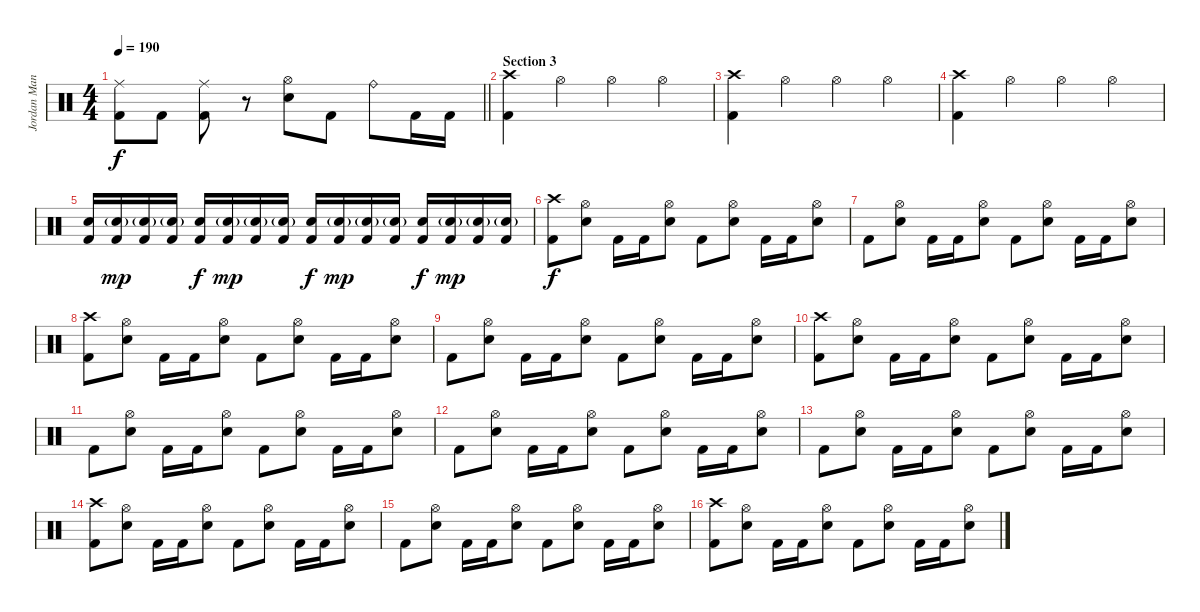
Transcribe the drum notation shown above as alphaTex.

\track ("Jordan Mancino" "Jordan Man") {instrument percussion}
\staff {score}
\articulation defaults
\ts (4 4)
\tempo 190
\clef neutral
\barLineRight lightlight
\ks c
("Ride (middle)" "Kick (hit) 2").8{dy f} "Kick (hit) 2".8 ("Ride (middle)" "Kick (hit) 2").8 r.8 ("Hi-Hat (open)" "Electric Snare (hit)").8 "Kick (hit) 2".8 "Ride (bell)".8 "Kick (hit) 2".16 "Kick (hit) 2".16 |
\section ("" "Section 3")
("Crash high (hit)" "Kick (hit) 2").4 "Hi-Hat (open)".4 "Hi-Hat (open)".4 "Hi-Hat (open)".4 |
("Crash high (hit)" "Kick (hit) 2").4 "Hi-Hat (open)".4 "Hi-Hat (open)".4 "Hi-Hat (open)".4 |
("Crash high (hit)" "Kick (hit) 2").4 "Hi-Hat (open)".4 "Hi-Hat (open)".4 "Hi-Hat (open)".4 |
("Electric Snare (hit)" "Kick (hit) 2").16 ("Electric Snare (hit)"{g} "Kick (hit) 2").16{dy mp} ("Electric Snare (hit)"{g} "Kick (hit) 2").16 ("Electric Snare (hit)"{g} "Kick (hit) 2").16 ("Electric Snare (hit)" "Kick (hit) 2").16{dy f} ("Electric Snare (hit)"{g} "Kick (hit) 2").16{dy mp} ("Electric Snare (hit)"{g} "Kick (hit) 2").16 ("Electric Snare (hit)"{g} "Kick (hit) 2").16 ("Electric Snare (hit)" "Kick (hit) 2").16{dy f} ("Electric Snare (hit)"{g} "Kick (hit) 2").16{dy mp} ("Electric Snare (hit)"{g} "Kick (hit) 2").16 ("Electric Snare (hit)"{g} "Kick (hit) 2").16 ("Electric Snare (hit)" "Kick (hit) 2").16{dy f} ("Electric Snare (hit)"{g} "Kick (hit) 2").16{dy mp} ("Electric Snare (hit)"{g} "Kick (hit) 2").16 ("Electric Snare (hit)"{g} "Kick (hit) 2").16 |
("Crash high (hit)" "Kick (hit) 2").8{dy f} ("Hi-Hat (open)" "Electric Snare (hit)").8 "Kick (hit) 2".16 "Kick (hit) 2".16 ("Hi-Hat (open)" "Electric Snare (hit)").8 "Kick (hit) 2".8 ("Hi-Hat (open)" "Electric Snare (hit)").8 "Kick (hit) 2".16 "Kick (hit) 2".16 ("Hi-Hat (open)" "Electric Snare (hit)").8 |
"Kick (hit) 2".8 ("Hi-Hat (open)" "Electric Snare (hit)").8 "Kick (hit) 2".16 "Kick (hit) 2".16 ("Hi-Hat (open)" "Electric Snare (hit)").8 "Kick (hit) 2".8 ("Hi-Hat (open)" "Electric Snare (hit)").8 "Kick (hit) 2".16 "Kick (hit) 2".16 ("Hi-Hat (open)" "Electric Snare (hit)").8 |
("Crash high (hit)" "Kick (hit) 2").8 ("Hi-Hat (open)" "Electric Snare (hit)").8 "Kick (hit) 2".16 "Kick (hit) 2".16 ("Hi-Hat (open)" "Electric Snare (hit)").8 "Kick (hit) 2".8 ("Hi-Hat (open)" "Electric Snare (hit)").8 "Kick (hit) 2".16 "Kick (hit) 2".16 ("Hi-Hat (open)" "Electric Snare (hit)").8 |
"Kick (hit) 2".8 ("Hi-Hat (open)" "Electric Snare (hit)").8 "Kick (hit) 2".16 "Kick (hit) 2".16 ("Hi-Hat (open)" "Electric Snare (hit)").8 "Kick (hit) 2".8 ("Hi-Hat (open)" "Electric Snare (hit)").8 "Kick (hit) 2".16 "Kick (hit) 2".16 ("Hi-Hat (open)" "Electric Snare (hit)").8 |
("Crash high (hit)" "Kick (hit) 2").8 ("Hi-Hat (open)" "Electric Snare (hit)").8 "Kick (hit) 2".16 "Kick (hit) 2".16 ("Hi-Hat (open)" "Electric Snare (hit)").8 "Kick (hit) 2".8 ("Hi-Hat (open)" "Electric Snare (hit)").8 "Kick (hit) 2".16 "Kick (hit) 2".16 ("Hi-Hat (open)" "Electric Snare (hit)").8 |
"Kick (hit) 2".8 ("Hi-Hat (open)" "Electric Snare (hit)").8 "Kick (hit) 2".16 "Kick (hit) 2".16 ("Hi-Hat (open)" "Electric Snare (hit)").8 "Kick (hit) 2".8 ("Hi-Hat (open)" "Electric Snare (hit)").8 "Kick (hit) 2".16 "Kick (hit) 2".16 ("Hi-Hat (open)" "Electric Snare (hit)").8 |
"Kick (hit) 2".8 ("Hi-Hat (open)" "Electric Snare (hit)").8 "Kick (hit) 2".16 "Kick (hit) 2".16 ("Hi-Hat (open)" "Electric Snare (hit)").8 "Kick (hit) 2".8 ("Hi-Hat (open)" "Electric Snare (hit)").8 "Kick (hit) 2".16 "Kick (hit) 2".16 ("Hi-Hat (open)" "Electric Snare (hit)").8 |
"Kick (hit) 2".8 ("Hi-Hat (open)" "Electric Snare (hit)").8 "Kick (hit) 2".16 "Kick (hit) 2".16 ("Hi-Hat (open)" "Electric Snare (hit)").8 "Kick (hit) 2".8 ("Hi-Hat (open)" "Electric Snare (hit)").8 "Kick (hit) 2".16 "Kick (hit) 2".16 ("Hi-Hat (open)" "Electric Snare (hit)").8 |
("Crash high (hit)" "Kick (hit) 2").8 ("Hi-Hat (open)" "Electric Snare (hit)").8 "Kick (hit) 2".16 "Kick (hit) 2".16 ("Hi-Hat (open)" "Electric Snare (hit)").8 "Kick (hit) 2".8 ("Hi-Hat (open)" "Electric Snare (hit)").8 "Kick (hit) 2".16 "Kick (hit) 2".16 ("Hi-Hat (open)" "Electric Snare (hit)").8 |
"Kick (hit) 2".8 ("Hi-Hat (open)" "Electric Snare (hit)").8 "Kick (hit) 2".16 "Kick (hit) 2".16 ("Hi-Hat (open)" "Electric Snare (hit)").8 "Kick (hit) 2".8 ("Hi-Hat (open)" "Electric Snare (hit)").8 "Kick (hit) 2".16 "Kick (hit) 2".16 ("Hi-Hat (open)" "Electric Snare (hit)").8 |
("Crash high (hit)" "Kick (hit) 2").8 ("Hi-Hat (open)" "Electric Snare (hit)").8 "Kick (hit) 2".16 "Kick (hit) 2".16 ("Hi-Hat (open)" "Electric Snare (hit)").8 "Kick (hit) 2".8 ("Hi-Hat (open)" "Electric Snare (hit)").8 "Kick (hit) 2".16 "Kick (hit) 2".16 ("Hi-Hat (open)" "Electric Snare (hit)").8
